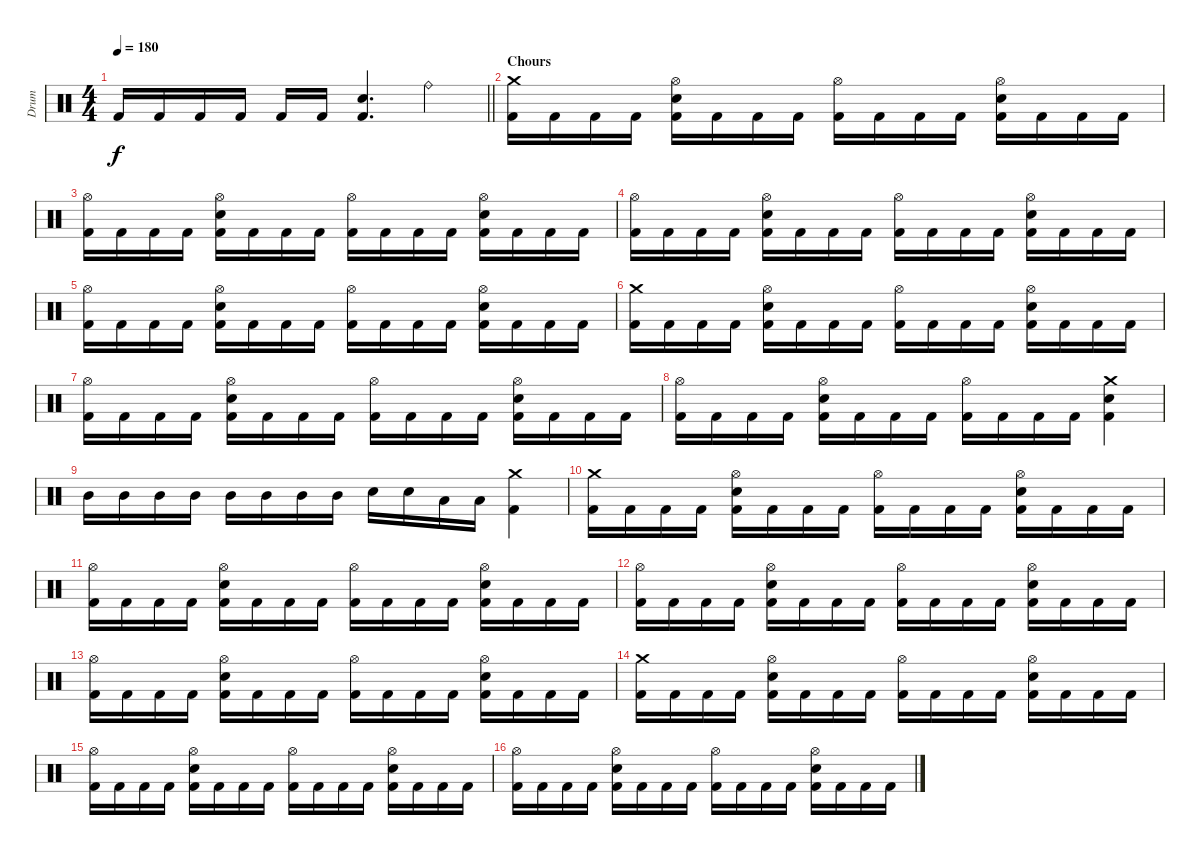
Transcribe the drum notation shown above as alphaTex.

\track ("Drum" "Drum") {instrument percussion}
\staff
\articulation defaults
\ts (4 4)
\tempo 180
\clef neutral
\barLineRight lightlight
\ks c "Kick (hit) 2".16{dy f} "Kick (hit) 2".16 "Kick (hit) 2".16 "Kick (hit) 2".16 "Kick (hit) 2".16 "Kick (hit) 2".16
("Electric Snare (hit)" "Kick (hit) 2").4{d} "Ride (bell)".4 |
\section ("" "Chours")
("Crash medium (hit)" "Kick (hit) 2").16 "Kick (hit) 2".16 "Kick (hit) 2".16 "Kick (hit) 2".16 ("Hi-Hat (open)" "Electric Snare (hit)" "Kick (hit) 2").16 "Kick (hit) 2".16 "Kick (hit) 2".16 "Kick (hit) 2".16 ("Hi-Hat (open)" "Kick (hit) 2").16 "Kick (hit) 2".16 "Kick (hit) 2".16 "Kick (hit) 2".16 ("Hi-Hat (open)" "Electric Snare (hit)" "Kick (hit) 2").16 "Kick (hit) 2".16 "Kick (hit) 2".16 "Kick (hit) 2".16 |
("Hi-Hat (open)" "Kick (hit) 2").16 "Kick (hit) 2".16 "Kick (hit) 2".16 "Kick (hit) 2".16 ("Hi-Hat (open)" "Electric Snare (hit)" "Kick (hit) 2").16 "Kick (hit) 2".16 "Kick (hit) 2".16 "Kick (hit) 2".16 ("Hi-Hat (open)" "Kick (hit) 2").16 "Kick (hit) 2".16 "Kick (hit) 2".16 "Kick (hit) 2".16 ("Hi-Hat (open)" "Electric Snare (hit)" "Kick (hit) 2").16 "Kick (hit) 2".16 "Kick (hit) 2".16 "Kick (hit) 2".16 |
("Hi-Hat (open)" "Kick (hit) 2").16 "Kick (hit) 2".16 "Kick (hit) 2".16 "Kick (hit) 2".16 ("Hi-Hat (open)" "Electric Snare (hit)" "Kick (hit) 2").16 "Kick (hit) 2".16 "Kick (hit) 2".16 "Kick (hit) 2".16 ("Hi-Hat (open)" "Kick (hit) 2").16 "Kick (hit) 2".16 "Kick (hit) 2".16 "Kick (hit) 2".16 ("Hi-Hat (open)" "Electric Snare (hit)" "Kick (hit) 2").16 "Kick (hit) 2".16 "Kick (hit) 2".16 "Kick (hit) 2".16 |
("Hi-Hat (open)" "Kick (hit) 2").16 "Kick (hit) 2".16 "Kick (hit) 2".16 "Kick (hit) 2".16 ("Hi-Hat (open)" "Electric Snare (hit)" "Kick (hit) 2").16 "Kick (hit) 2".16 "Kick (hit) 2".16 "Kick (hit) 2".16 ("Hi-Hat (open)" "Kick (hit) 2").16 "Kick (hit) 2".16 "Kick (hit) 2".16 "Kick (hit) 2".16 ("Hi-Hat (open)" "Electric Snare (hit)" "Kick (hit) 2").16 "Kick (hit) 2".16 "Kick (hit) 2".16 "Kick (hit) 2".16 |
("Crash medium (hit)" "Kick (hit) 2").16 "Kick (hit) 2".16 "Kick (hit) 2".16 "Kick (hit) 2".16 ("Hi-Hat (open)" "Electric Snare (hit)" "Kick (hit) 2").16 "Kick (hit) 2".16 "Kick (hit) 2".16 "Kick (hit) 2".16 ("Hi-Hat (open)" "Kick (hit) 2").16 "Kick (hit) 2".16 "Kick (hit) 2".16 "Kick (hit) 2".16 ("Hi-Hat (open)" "Electric Snare (hit)" "Kick (hit) 2").16 "Kick (hit) 2".16 "Kick (hit) 2".16 "Kick (hit) 2".16 |
("Hi-Hat (open)" "Kick (hit) 2").16 "Kick (hit) 2".16 "Kick (hit) 2".16 "Kick (hit) 2".16 ("Hi-Hat (open)" "Electric Snare (hit)" "Kick (hit) 2").16 "Kick (hit) 2".16 "Kick (hit) 2".16 "Kick (hit) 2".16 ("Hi-Hat (open)" "Kick (hit) 2").16 "Kick (hit) 2".16 "Kick (hit) 2".16 "Kick (hit) 2".16 ("Hi-Hat (open)" "Electric Snare (hit)" "Kick (hit) 2").16 "Kick (hit) 2".16 "Kick (hit) 2".16 "Kick (hit) 2".16 |
("Hi-Hat (open)" "Kick (hit) 2").16 "Kick (hit) 2".16 "Kick (hit) 2".16 "Kick (hit) 2".16 ("Hi-Hat (open)" "Electric Snare (hit)" "Kick (hit) 2").16 "Kick (hit) 2".16 "Kick (hit) 2".16 "Kick (hit) 2".16 ("Hi-Hat (open)" "Kick (hit) 2").16 "Kick (hit) 2".16 "Kick (hit) 2".16 "Kick (hit) 2".16 ("Crash medium (hit)" "Electric Snare (hit)" "Kick (hit) 2").4 |
"Mid Tom (hit)".16 "Mid Tom (hit)".16 "Mid Tom (hit)".16 "Mid Tom (hit)".16 "Mid Tom (hit)".16 "Mid Tom (hit)".16 "Mid Tom (hit)".16 "Mid Tom (hit)".16 "Electric Snare (hit)".16 "Electric Snare (hit)".16 "Low Tom (hit)".16 "Low Tom (hit)".16 ("Crash medium (hit)" "Kick (hit) 2").4 |
("Crash medium (hit)" "Kick (hit) 2").16 "Kick (hit) 2".16 "Kick (hit) 2".16 "Kick (hit) 2".16 ("Hi-Hat (open)" "Electric Snare (hit)" "Kick (hit) 2").16 "Kick (hit) 2".16 "Kick (hit) 2".16 "Kick (hit) 2".16 ("Hi-Hat (open)" "Kick (hit) 2").16 "Kick (hit) 2".16 "Kick (hit) 2".16 "Kick (hit) 2".16 ("Hi-Hat (open)" "Electric Snare (hit)" "Kick (hit) 2").16 "Kick (hit) 2".16 "Kick (hit) 2".16 "Kick (hit) 2".16 |
("Hi-Hat (open)" "Kick (hit) 2").16 "Kick (hit) 2".16 "Kick (hit) 2".16 "Kick (hit) 2".16 ("Hi-Hat (open)" "Electric Snare (hit)" "Kick (hit) 2").16 "Kick (hit) 2".16 "Kick (hit) 2".16 "Kick (hit) 2".16 ("Hi-Hat (open)" "Kick (hit) 2").16 "Kick (hit) 2".16 "Kick (hit) 2".16 "Kick (hit) 2".16 ("Hi-Hat (open)" "Electric Snare (hit)" "Kick (hit) 2").16 "Kick (hit) 2".16 "Kick (hit) 2".16 "Kick (hit) 2".16 |
("Hi-Hat (open)" "Kick (hit) 2").16 "Kick (hit) 2".16 "Kick (hit) 2".16 "Kick (hit) 2".16 ("Hi-Hat (open)" "Electric Snare (hit)" "Kick (hit) 2").16 "Kick (hit) 2".16 "Kick (hit) 2".16 "Kick (hit) 2".16 ("Hi-Hat (open)" "Kick (hit) 2").16 "Kick (hit) 2".16 "Kick (hit) 2".16 "Kick (hit) 2".16 ("Hi-Hat (open)" "Electric Snare (hit)" "Kick (hit) 2").16 "Kick (hit) 2".16 "Kick (hit) 2".16 "Kick (hit) 2".16 |
("Hi-Hat (open)" "Kick (hit) 2").16 "Kick (hit) 2".16 "Kick (hit) 2".16 "Kick (hit) 2".16 ("Hi-Hat (open)" "Electric Snare (hit)" "Kick (hit) 2").16 "Kick (hit) 2".16 "Kick (hit) 2".16 "Kick (hit) 2".16 ("Hi-Hat (open)" "Kick (hit) 2").16 "Kick (hit) 2".16 "Kick (hit) 2".16 "Kick (hit) 2".16 ("Hi-Hat (open)" "Electric Snare (hit)" "Kick (hit) 2").16 "Kick (hit) 2".16 "Kick (hit) 2".16 "Kick (hit) 2".16 |
("Crash medium (hit)" "Kick (hit) 2").16 "Kick (hit) 2".16 "Kick (hit) 2".16 "Kick (hit) 2".16 ("Hi-Hat (open)" "Electric Snare (hit)" "Kick (hit) 2").16 "Kick (hit) 2".16 "Kick (hit) 2".16 "Kick (hit) 2".16 ("Hi-Hat (open)" "Kick (hit) 2").16 "Kick (hit) 2".16 "Kick (hit) 2".16 "Kick (hit) 2".16 ("Hi-Hat (open)" "Electric Snare (hit)" "Kick (hit) 2").16 "Kick (hit) 2".16 "Kick (hit) 2".16 "Kick (hit) 2".16 |
("Hi-Hat (open)" "Kick (hit) 2").16 "Kick (hit) 2".16 "Kick (hit) 2".16 "Kick (hit) 2".16 ("Hi-Hat (open)" "Electric Snare (hit)" "Kick (hit) 2").16 "Kick (hit) 2".16 "Kick (hit) 2".16 "Kick (hit) 2".16 ("Hi-Hat (open)" "Kick (hit) 2").16 "Kick (hit) 2".16 "Kick (hit) 2".16 "Kick (hit) 2".16 ("Hi-Hat (open)" "Electric Snare (hit)" "Kick (hit) 2").16 "Kick (hit) 2".16 "Kick (hit) 2".16 "Kick (hit) 2".16 |
("Hi-Hat (open)" "Kick (hit) 2").16 "Kick (hit) 2".16 "Kick (hit) 2".16 "Kick (hit) 2".16 ("Hi-Hat (open)" "Electric Snare (hit)" "Kick (hit) 2").16 "Kick (hit) 2".16 "Kick (hit) 2".16 "Kick (hit) 2".16 ("Hi-Hat (open)" "Kick (hit) 2").16 "Kick (hit) 2".16 "Kick (hit) 2".16 "Kick (hit) 2".16 ("Hi-Hat (open)" "Electric Snare (hit)" "Kick (hit) 2").16 "Kick (hit) 2".16 "Kick (hit) 2".16 "Kick (hit) 2".16
